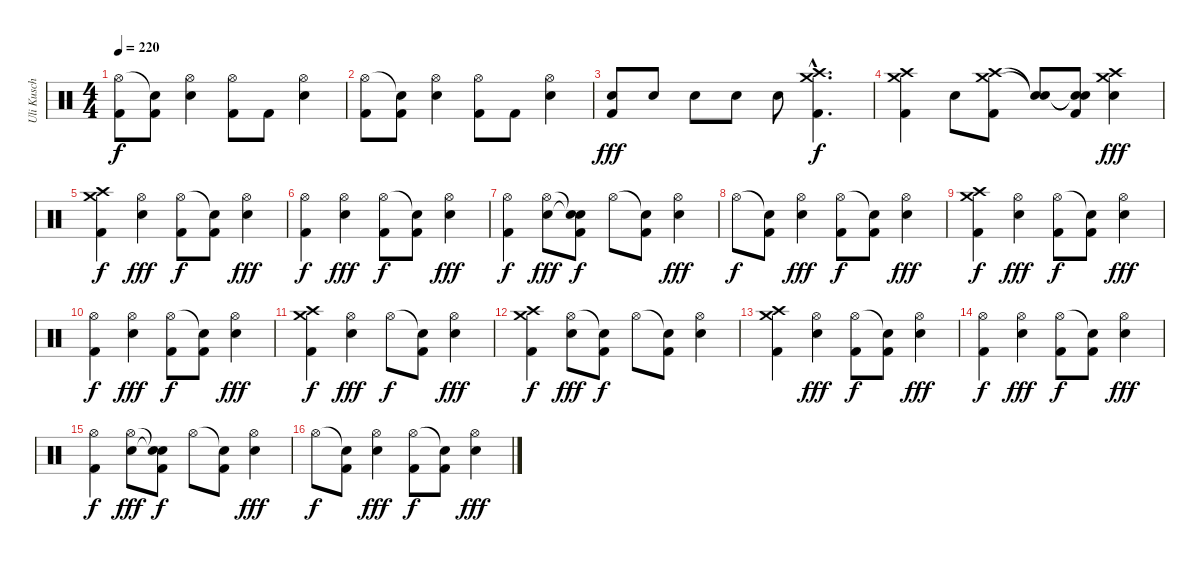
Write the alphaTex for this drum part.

\track ("Uli Kusch" "Uli Kusch") {instrument percussion}
\staff {score}
\articulation defaults
\ts (4 4)
\tempo 220
\clef neutral
\ks c
("Hi-Hat (open)" "Kick (hit) 2").8{dy f} ("Snare (hit)"{t} "Kick (hit) 2").8 ("Hi-Hat (open)" "Electric Snare (hit)").4 ("Hi-Hat (open)" "Kick (hit) 2").8 "Kick (hit) 2".8 ("Hi-Hat (open)" "Electric Snare (hit)").4 |
("Hi-Hat (open)" "Kick (hit) 2").8 ("Snare (hit)"{t} "Kick (hit) 2").8 ("Hi-Hat (open)" "Electric Snare (hit)").4 ("Hi-Hat (open)" "Kick (hit) 2").8 "Kick (hit) 2".8 ("Hi-Hat (open)" "Electric Snare (hit)").4 |
("Electric Snare (hit)" "Kick (hit) 2").8{dy fff} "Electric Snare (hit)".8 "Electric Snare (hit)".8 "Electric Snare (hit)".8 "Electric Snare (hit)".8 ("Crash medium (hit)"{hac} "Crash high (hit)"{hac} "Kick (hit) 2"{hac}).4{d dy f} |
("Crash medium (hit)" "Crash high (hit)" "Kick (hit) 2").4 "Electric Snare (hit)".8 ("Crash high (hit)" "Crash medium (hit)" "Kick (hit) 2").8 ("Snare (hit)"{t} "Snare (hit)"{t}).8 ("Snare (hit)"{t} "Snare (hit)"{t} "Kick (hit) 2").8 ("Crash medium (hit)" "Crash high (hit)" "Electric Snare (hit)").4{dy fff} |
("Crash medium (hit)" "Crash high (hit)" "Kick (hit) 2").4{dy f} ("Hi-Hat (open)" "Electric Snare (hit)").4{dy fff} ("Hi-Hat (open)" "Kick (hit) 2").8{dy f} ("Snare (hit)"{t} "Kick (hit) 2").8 ("Hi-Hat (open)" "Electric Snare (hit)").4{dy fff} |
("Hi-Hat (open)" "Kick (hit) 2").4{dy f} ("Hi-Hat (open)" "Electric Snare (hit)").4{dy fff} ("Hi-Hat (open)" "Kick (hit) 2").8{dy f} ("Snare (hit)"{t} "Kick (hit) 2").8 ("Hi-Hat (open)" "Electric Snare (hit)").4{dy fff} |
("Hi-Hat (open)" "Kick (hit) 2").4{dy f} ("Hi-Hat (open)" "Electric Snare (hit)").8{dy fff} ("Snare (hit)"{t} "Snare (hit)"{t} "Kick (hit) 2").8{dy f} "Hi-Hat (open)".8 ("Snare (hit)"{t} "Kick (hit) 2").8 ("Hi-Hat (open)" "Electric Snare (hit)").4{dy fff} |
"Hi-Hat (open)".8{dy f} ("Snare (hit)"{t} "Kick (hit) 2").8 ("Hi-Hat (open)" "Electric Snare (hit)").4{dy fff} ("Hi-Hat (open)" "Kick (hit) 2").8{dy f} ("Snare (hit)"{t} "Kick (hit) 2").8 ("Hi-Hat (open)" "Electric Snare (hit)").4{dy fff} |
("Crash high (hit)" "Crash medium (hit)" "Kick (hit) 2").4{dy f} ("Hi-Hat (open)" "Electric Snare (hit)").4{dy fff} ("Hi-Hat (open)" "Kick (hit) 2").8{dy f} ("Snare (hit)"{t} "Kick (hit) 2").8 ("Hi-Hat (open)" "Electric Snare (hit)").4{dy fff} |
("Hi-Hat (open)" "Kick (hit) 2").4{dy f} ("Hi-Hat (open)" "Electric Snare (hit)").4{dy fff} ("Hi-Hat (open)" "Kick (hit) 2").8{dy f} ("Snare (hit)"{t} "Kick (hit) 2").8 ("Hi-Hat (open)" "Electric Snare (hit)").4{dy fff} |
("Crash high (hit)" "Crash medium (hit)" "Kick (hit) 2").4{dy f} ("Hi-Hat (open)" "Electric Snare (hit)").4{dy fff} "Hi-Hat (open)".8{dy f} ("Snare (hit)"{t} "Kick (hit) 2").8 ("Hi-Hat (open)" "Electric Snare (hit)").4{dy fff} |
("Crash medium (hit)" "Crash high (hit)" "Kick (hit) 2").4{dy f} ("Hi-Hat (open)" "Electric Snare (hit)").8{dy fff} ("Snare (hit)"{t} "Kick (hit) 2").8{dy f} "Hi-Hat (open)".8 ("Snare (hit)"{t} "Kick (hit) 2").8 ("Hi-Hat (open)" "Electric Snare (hit)").4 |
("Crash medium (hit)" "Crash high (hit)" "Kick (hit) 2").4 ("Hi-Hat (open)" "Electric Snare (hit)").4{dy fff} ("Hi-Hat (open)" "Kick (hit) 2").8{dy f} ("Snare (hit)"{t} "Kick (hit) 2").8 ("Hi-Hat (open)" "Electric Snare (hit)").4{dy fff} |
("Hi-Hat (open)" "Kick (hit) 2").4{dy f} ("Hi-Hat (open)" "Electric Snare (hit)").4{dy fff} ("Hi-Hat (open)" "Kick (hit) 2").8{dy f} ("Snare (hit)"{t} "Kick (hit) 2").8 ("Hi-Hat (open)" "Electric Snare (hit)").4{dy fff} |
("Hi-Hat (open)" "Kick (hit) 2").4{dy f} ("Hi-Hat (open)" "Electric Snare (hit)").8{dy fff} ("Snare (hit)"{t} "Snare (hit)"{t} "Kick (hit) 2").8{dy f} "Hi-Hat (open)".8 ("Snare (hit)"{t} "Kick (hit) 2").8 ("Hi-Hat (open)" "Electric Snare (hit)").4{dy fff} |
"Hi-Hat (open)".8{dy f} ("Snare (hit)"{t} "Kick (hit) 2").8 ("Hi-Hat (open)" "Electric Snare (hit)").4{dy fff} ("Hi-Hat (open)" "Kick (hit) 2").8{dy f} ("Snare (hit)"{t} "Kick (hit) 2").8 ("Hi-Hat (open)" "Electric Snare (hit)").4{dy fff}
